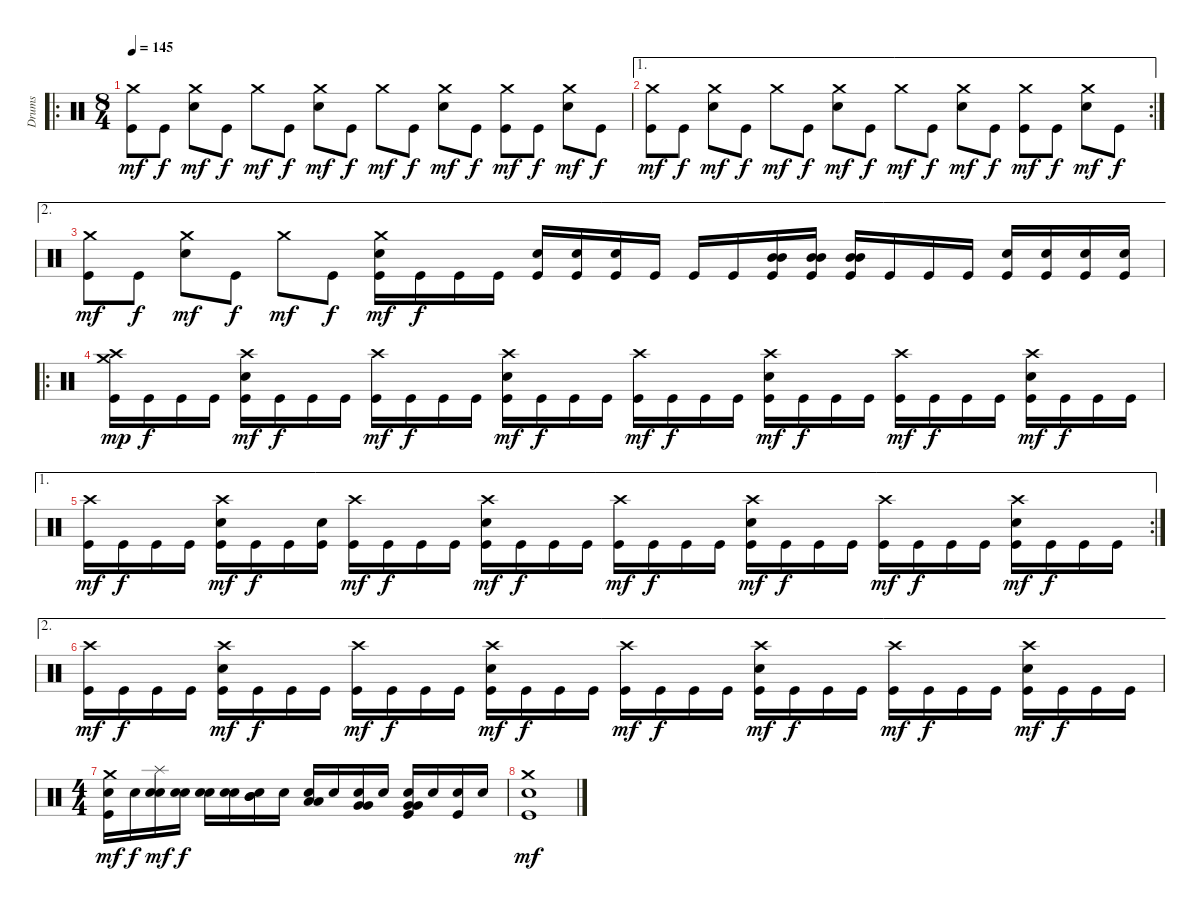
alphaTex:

\track ("Drums" "Drums") {instrument percussion}
\staff {score}
\articulation defaults
\ro
\ts (8 4)
\tempo 145
\clef neutral
\ks c
("Crash medium (hit)" "Kick (hit)").8{dy mf} "Kick (hit)".8{dy f} ("Crash medium (hit)" "Electric Snare (hit)").8{dy mf} "Kick (hit)".8{dy f} "Crash medium (hit)".8{dy mf} "Kick (hit)".8{dy f} ("Crash medium (hit)" "Electric Snare (hit)").8{dy mf} "Kick (hit)".8{dy f} "Crash medium (hit)".8{dy mf} "Kick (hit)".8{dy f} ("Crash medium (hit)" "Electric Snare (hit)").8{dy mf} "Kick (hit)".8{dy f} ("Crash medium (hit)" "Kick (hit)").8{dy mf} "Kick (hit)".8{dy f} ("Crash medium (hit)" "Electric Snare (hit)").8{dy mf} "Kick (hit)".8{dy f} |
\ae 1
\rc 2
("Crash medium (hit)" "Kick (hit)").8{dy mf} "Kick (hit)".8{dy f} ("Crash medium (hit)" "Electric Snare (hit)").8{dy mf} "Kick (hit)".8{dy f} "Crash medium (hit)".8{dy mf} "Kick (hit)".8{dy f} ("Crash medium (hit)" "Electric Snare (hit)").8{dy mf} "Kick (hit)".8{dy f} "Crash medium (hit)".8{dy mf} "Kick (hit)".8{dy f} ("Crash medium (hit)" "Electric Snare (hit)").8{dy mf} "Kick (hit)".8{dy f} ("Crash medium (hit)" "Kick (hit)").8{dy mf} "Kick (hit)".8{dy f} ("Crash medium (hit)" "Electric Snare (hit)").8{dy mf} "Kick (hit)".8{dy f} |
\ae 2
("Crash medium (hit)" "Kick (hit)").8{dy mf} "Kick (hit)".8{dy f} ("Crash medium (hit)" "Electric Snare (hit)").8{dy mf} "Kick (hit)".8{dy f} "Crash medium (hit)".8{dy mf} "Kick (hit)".8{dy f} ("Crash medium (hit)" "Electric Snare (hit)" "Kick (hit)").16{dy mf} "Kick (hit)".16{dy f} "Kick (hit)".16 "Kick (hit)".16 ("Electric Snare (hit)" "Kick (hit)").16 ("Electric Snare (hit)" "Kick (hit)").16 ("Electric Snare (hit)" "Kick (hit)").16 "Kick (hit)".16 "Kick (hit)".16 "Kick (hit)".16 ("Mid Tom (hit)" "Mid Tom (hit)" "Kick (hit)").16 ("Mid Tom (hit)" "Mid Tom (hit)" "Kick (hit)").16 ("Mid Tom (hit)" "Mid Tom (hit)" "Kick (hit)").16 "Kick (hit)".16 "Kick (hit)".16 "Kick (hit)".16 ("Electric Snare (hit)" "Kick (hit)").16 ("Electric Snare (hit)" "Kick (hit)").16 ("Electric Snare (hit)" "Kick (hit)").16 ("Electric Snare (hit)" "Kick (hit)").16 |
\ro
("Crash medium (hit)" "Crash high (hit)" "Kick (hit)").16{dy mp} "Kick (hit)".16{dy f} "Kick (hit)".16 "Kick (hit)".16 ("Crash high (hit)" "Electric Snare (hit)" "Kick (hit)").16{dy mf} "Kick (hit)".16{dy f} "Kick (hit)".16 "Kick (hit)".16 ("Crash high (hit)" "Kick (hit)").16{dy mf} "Kick (hit)".16{dy f} "Kick (hit)".16 "Kick (hit)".16 ("Crash high (hit)" "Electric Snare (hit)" "Kick (hit)").16{dy mf} "Kick (hit)".16{dy f} "Kick (hit)".16 "Kick (hit)".16 ("Crash high (hit)" "Kick (hit)").16{dy mf} "Kick (hit)".16{dy f} "Kick (hit)".16 "Kick (hit)".16 ("Crash high (hit)" "Electric Snare (hit)" "Kick (hit)").16{dy mf} "Kick (hit)".16{dy f} "Kick (hit)".16 "Kick (hit)".16 ("Crash high (hit)" "Kick (hit)").16{dy mf} "Kick (hit)".16{dy f} "Kick (hit)".16 "Kick (hit)".16 ("Crash high (hit)" "Electric Snare (hit)" "Kick (hit)").16{dy mf} "Kick (hit)".16{dy f} "Kick (hit)".16 "Kick (hit)".16 |
\ae 1
\rc 2
("Crash high (hit)" "Kick (hit)").16{dy mf} "Kick (hit)".16{dy f} "Kick (hit)".16 "Kick (hit)".16 ("Crash high (hit)" "Electric Snare (hit)" "Kick (hit)").16{dy mf} "Kick (hit)".16{dy f} "Kick (hit)".16 ("Snare (hit)" "Kick (hit)").16 ("Crash high (hit)" "Kick (hit)").16{dy mf} "Kick (hit)".16{dy f} "Kick (hit)".16 "Kick (hit)".16 ("Crash high (hit)" "Electric Snare (hit)" "Kick (hit)").16{dy mf} "Kick (hit)".16{dy f} "Kick (hit)".16 "Kick (hit)".16 ("Crash high (hit)" "Kick (hit)").16{dy mf} "Kick (hit)".16{dy f} "Kick (hit)".16 "Kick (hit)".16 ("Crash high (hit)" "Electric Snare (hit)" "Kick (hit)").16{dy mf} "Kick (hit)".16{dy f} "Kick (hit)".16 "Kick (hit)".16 ("Crash high (hit)" "Kick (hit)").16{dy mf} "Kick (hit)".16{dy f} "Kick (hit)".16 "Kick (hit)".16 ("Crash high (hit)" "Electric Snare (hit)" "Kick (hit)").16{dy mf} "Kick (hit)".16{dy f} "Kick (hit)".16 "Kick (hit)".16 |
\ae 2
("Crash high (hit)" "Kick (hit)").16{dy mf} "Kick (hit)".16{dy f} "Kick (hit)".16 "Kick (hit)".16 ("Crash high (hit)" "Electric Snare (hit)" "Kick (hit)").16{dy mf} "Kick (hit)".16{dy f} "Kick (hit)".16 "Kick (hit)".16 ("Crash high (hit)" "Kick (hit)").16{dy mf} "Kick (hit)".16{dy f} "Kick (hit)".16 "Kick (hit)".16 ("Crash high (hit)" "Electric Snare (hit)" "Kick (hit)").16{dy mf} "Kick (hit)".16{dy f} "Kick (hit)".16 "Kick (hit)".16 ("Crash high (hit)" "Kick (hit)").16{dy mf} "Kick (hit)".16{dy f} "Kick (hit)".16 "Kick (hit)".16 ("Crash high (hit)" "Electric Snare (hit)" "Kick (hit)").16{dy mf} "Kick (hit)".16{dy f} "Kick (hit)".16 "Kick (hit)".16 ("Crash high (hit)" "Kick (hit)").16{dy mf} "Kick (hit)".16{dy f} "Kick (hit)".16 "Kick (hit)".16 ("Crash high (hit)" "Electric Snare (hit)" "Kick (hit)").16{dy mf} "Kick (hit)".16{dy f} "Kick (hit)".16 "Kick (hit)".16 |
\ts (4 4)
("Snare (hit)"{x} "Crash medium (hit)" "Kick (hit)").16{dy mf} "Snare (hit)"{x}.16{dy f} ("Snare (hit)"{x} "Splash (hit)" "Electric Snare (hit)").16{dy mf} ("Snare (hit)"{x} "Electric Snare (hit)").16{dy f} ("Snare (hit)"{x} "Electric Snare (hit)").16 ("Snare (hit)"{x} "Electric Snare (hit)").16 ("Snare (hit)"{x} "Mid Tom (hit)" "Mid Tom (hit)").16 "Snare (hit)"{x}.16 ("Snare (hit)"{x} "Low Tom (hit)" "Low Tom (hit)").16 "Snare (hit)"{x}.16 ("Snare (hit)"{x} "Very Low Tom (hit)" "Very Low Tom (hit)").16 "Snare (hit)"{x}.16 ("Snare (hit)"{x} "Very Low Tom (hit)" "Very Low Tom (hit)" "Kick (hit)").16 "Snare (hit)"{x}.16 ("Snare (hit)"{x} "Kick (hit)").16 "Snare (hit)"{x}.16 |
("Snare (hit)"{x} "Crash medium (hit)" "Kick (hit)").1{dy mf}
